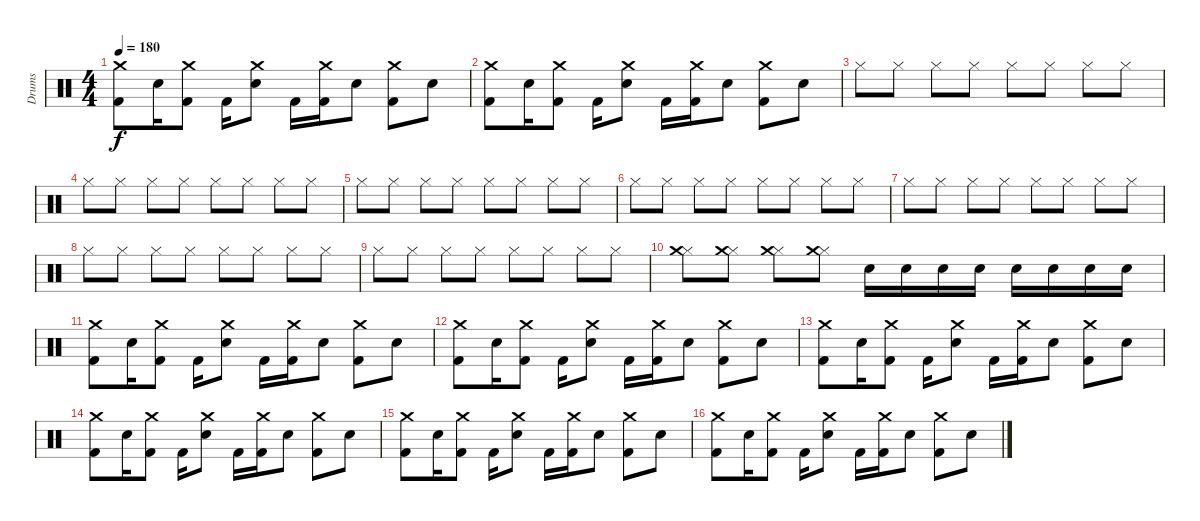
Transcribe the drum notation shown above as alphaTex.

\track ("Drums" "Drums") {instrument percussion}
\staff {score}
\articulation defaults
\ts (4 4)
\tempo 180
\clef neutral
\ks c
("Kick (hit) 2" "Crash medium (hit)").8{dy f} "Snare (hit) 2".16 ("Crash medium (hit)" "Kick (hit) 2").8 "Kick (hit) 2".16 ("Crash medium (hit)" "Snare (hit) 2").8 "Kick (hit) 2".16 ("Crash medium (hit)" "Kick (hit) 2").16 "Snare (hit) 2".8 ("Crash medium (hit)" "Kick (hit) 2").8 "Snare (hit) 2".8 |
("Kick (hit) 2" "Crash medium (hit)").8 "Snare (hit) 2".16 ("Crash medium (hit)" "Kick (hit) 2").8 "Kick (hit) 2".16 ("Crash medium (hit)" "Snare (hit) 2").8 "Kick (hit) 2".16 ("Crash medium (hit)" "Kick (hit) 2").16 "Snare (hit) 2".8 ("Crash medium (hit)" "Kick (hit) 2").8 "Snare (hit) 2".8 |
"Hi-Hat (closed)".8 "Hi-Hat (closed)".8 "Hi-Hat (closed)".8 "Hi-Hat (closed)".8 "Hi-Hat (closed)".8 "Hi-Hat (closed)".8 "Hi-Hat (closed)".8 "Hi-Hat (closed)".8 |
"Hi-Hat (closed)".8 "Hi-Hat (closed)".8 "Hi-Hat (closed)".8 "Hi-Hat (closed)".8 "Hi-Hat (closed)".8 "Hi-Hat (closed)".8 "Hi-Hat (closed)".8 "Hi-Hat (closed)".8 |
"Hi-Hat (closed)".8 "Hi-Hat (closed)".8 "Hi-Hat (closed)".8 "Hi-Hat (closed)".8 "Hi-Hat (closed)".8 "Hi-Hat (closed)".8 "Hi-Hat (closed)".8 "Hi-Hat (closed)".8 |
"Hi-Hat (closed)".8 "Hi-Hat (closed)".8 "Hi-Hat (closed)".8 "Hi-Hat (closed)".8 "Hi-Hat (closed)".8 "Hi-Hat (closed)".8 "Hi-Hat (closed)".8 "Hi-Hat (closed)".8 |
"Hi-Hat (closed)".8 "Hi-Hat (closed)".8 "Hi-Hat (closed)".8 "Hi-Hat (closed)".8 "Hi-Hat (closed)".8 "Hi-Hat (closed)".8 "Hi-Hat (closed)".8 "Hi-Hat (closed)".8 |
"Hi-Hat (closed)".8 "Hi-Hat (closed)".8 "Hi-Hat (closed)".8 "Hi-Hat (closed)".8 "Hi-Hat (closed)".8 "Hi-Hat (closed)".8 "Hi-Hat (closed)".8 "Hi-Hat (closed)".8 |
"Hi-Hat (closed)".8 "Hi-Hat (closed)".8 "Hi-Hat (closed)".8 "Hi-Hat (closed)".8 "Hi-Hat (closed)".8 "Hi-Hat (closed)".8 "Hi-Hat (closed)".8 "Hi-Hat (closed)".8 |
("Hi-Hat (closed)" "Crash medium (hit)").8 ("Hi-Hat (closed)" "Crash medium (hit)").8 ("Hi-Hat (closed)" "Crash medium (hit)").8 ("Hi-Hat (closed)" "Crash medium (hit)").8 "Snare (hit) 2".16 "Snare (hit) 2".16 "Snare (hit) 2".16 "Snare (hit) 2".16 "Snare (hit) 2".16 "Snare (hit) 2".16 "Snare (hit) 2".16 "Snare (hit) 2".16 |
("Kick (hit) 2" "Crash medium (hit)").8 "Snare (hit) 2".16 ("Crash medium (hit)" "Kick (hit) 2").8 "Kick (hit) 2".16 ("Crash medium (hit)" "Snare (hit) 2").8 "Kick (hit) 2".16 ("Crash medium (hit)" "Kick (hit) 2").16 "Snare (hit) 2".8 ("Crash medium (hit)" "Kick (hit) 2").8 "Snare (hit) 2".8 |
("Kick (hit) 2" "Crash medium (hit)").8 "Snare (hit) 2".16 ("Crash medium (hit)" "Kick (hit) 2").8 "Kick (hit) 2".16 ("Crash medium (hit)" "Snare (hit) 2").8 "Kick (hit) 2".16 ("Crash medium (hit)" "Kick (hit) 2").16 "Snare (hit) 2".8 ("Crash medium (hit)" "Kick (hit) 2").8 "Snare (hit) 2".8 |
("Kick (hit) 2" "Crash medium (hit)").8 "Snare (hit) 2".16 ("Crash medium (hit)" "Kick (hit) 2").8 "Kick (hit) 2".16 ("Crash medium (hit)" "Snare (hit) 2").8 "Kick (hit) 2".16 ("Crash medium (hit)" "Kick (hit) 2").16 "Snare (hit) 2".8 ("Crash medium (hit)" "Kick (hit) 2").8 "Snare (hit) 2".8 |
("Kick (hit) 2" "Crash medium (hit)").8 "Snare (hit) 2".16 ("Crash medium (hit)" "Kick (hit) 2").8 "Kick (hit) 2".16 ("Crash medium (hit)" "Snare (hit) 2").8 "Kick (hit) 2".16 ("Crash medium (hit)" "Kick (hit) 2").16 "Snare (hit) 2".8 ("Crash medium (hit)" "Kick (hit) 2").8 "Snare (hit) 2".8 |
("Kick (hit) 2" "Crash medium (hit)").8 "Snare (hit) 2".16 ("Crash medium (hit)" "Kick (hit) 2").8 "Kick (hit) 2".16 ("Crash medium (hit)" "Snare (hit) 2").8 "Kick (hit) 2".16 ("Crash medium (hit)" "Kick (hit) 2").16 "Snare (hit) 2".8 ("Crash medium (hit)" "Kick (hit) 2").8 "Snare (hit) 2".8 |
("Kick (hit) 2" "Crash medium (hit)").8 "Snare (hit) 2".16 ("Crash medium (hit)" "Kick (hit) 2").8 "Kick (hit) 2".16 ("Crash medium (hit)" "Snare (hit) 2").8 "Kick (hit) 2".16 ("Crash medium (hit)" "Kick (hit) 2").16 "Snare (hit) 2".8 ("Crash medium (hit)" "Kick (hit) 2").8 "Snare (hit) 2".8
